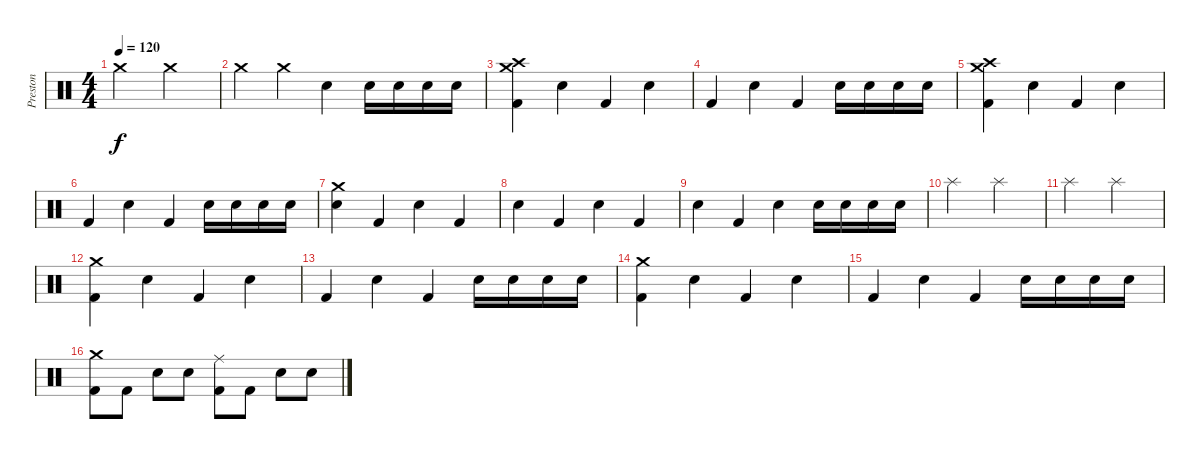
\track ("Preston" "Preston") {instrument percussion}
\staff {score}
\articulation defaults
\ts (4 4)
\tempo 120
\clef neutral
\ks c "Crash medium (hit)".2{dy f} "Crash medium (hit)".2
|
"Crash medium (hit)".4 "Crash medium (hit)".4 "Electric Snare (hit)".4 "Electric Snare (hit)".16 "Electric Snare (hit)".16 "Electric Snare (hit)".16 "Electric Snare (hit)".16 |
("Crash medium (hit)" "Crash high (hit)" "Kick (hit) 2").4 "Electric Snare (hit)".4 "Kick (hit) 2".4 "Electric Snare (hit)".4 |
"Kick (hit) 2".4 "Electric Snare (hit)".4 "Kick (hit) 2".4 "Electric Snare (hit)".16 "Electric Snare (hit)".16 "Electric Snare (hit)".16 "Electric Snare (hit)".16 |
("Crash medium (hit)" "Crash high (hit)" "Kick (hit) 2").4 "Electric Snare (hit)".4 "Kick (hit) 2".4 "Electric Snare (hit)".4 |
"Kick (hit) 2".4 "Electric Snare (hit)".4 "Kick (hit) 2".4 "Electric Snare (hit)".16 "Electric Snare (hit)".16 "Electric Snare (hit)".16 "Electric Snare (hit)".16 |
("Crash medium (hit)" "Electric Snare (hit)").4 "Kick (hit) 2".4 "Electric Snare (hit)".4 "Kick (hit) 2".4 |
"Electric Snare (hit)".4 "Kick (hit) 2".4 "Electric Snare (hit)".4 "Kick (hit) 2".4 |
"Electric Snare (hit)".4 "Kick (hit) 2".4 "Electric Snare (hit)".4 "Electric Snare (hit)".16 "Electric Snare (hit)".16 "Electric Snare (hit)".16 "Electric Snare (hit)".16 |
"Splash (hit)".2 "Splash (hit)".2 |
"Splash (hit)".2 "Splash (hit)".2 |
("Crash medium (hit)" "Kick (hit) 2").4 "Electric Snare (hit)".4 "Kick (hit) 2".4 "Electric Snare (hit)".4 |
"Kick (hit) 2".4 "Electric Snare (hit)".4 "Kick (hit) 2".4 "Electric Snare (hit)".16 "Electric Snare (hit)".16 "Electric Snare (hit)".16 "Electric Snare (hit)".16 |
("Crash medium (hit)" "Kick (hit) 2").4 "Electric Snare (hit)".4 "Kick (hit) 2".4 "Electric Snare (hit)".4 |
"Kick (hit) 2".4 "Electric Snare (hit)".4 "Kick (hit) 2".4 "Electric Snare (hit)".16 "Electric Snare (hit)".16 "Electric Snare (hit)".16 "Electric Snare (hit)".16 |
("Crash medium (hit)" "Kick (hit) 2").8 "Kick (hit) 2".8 "Electric Snare (hit)".8 "Electric Snare (hit)".8 ("Ride (middle)" "Kick (hit) 2").8 "Kick (hit) 2".8 "Electric Snare (hit)".8 "Electric Snare (hit)".8
